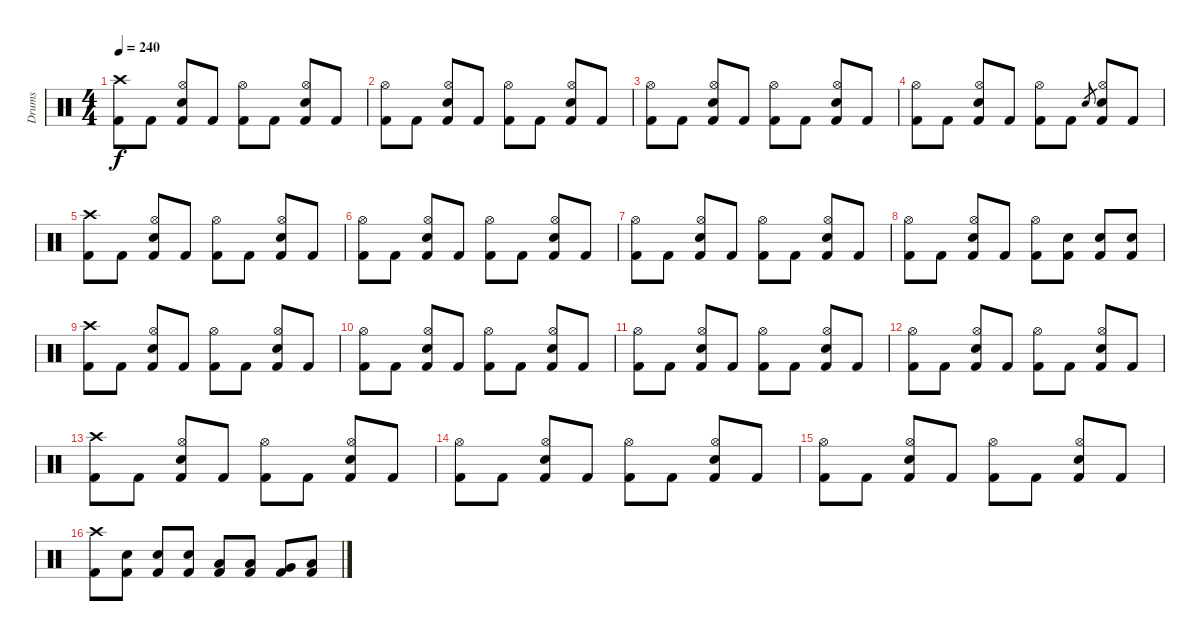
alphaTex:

\track ("Drums" "Drums") {instrument percussion}
\staff {score}
\articulation defaults
\ts (4 4)
\tempo 240
\clef neutral
\ks c
("Crash high (hit)" "Kick (hit) 2").8{dy f} "Kick (hit) 2".8 ("Hi-Hat (open)" "Snare (hit) 2" "Kick (hit) 2").8 "Kick (hit) 2".8 ("Hi-Hat (open)" "Kick (hit) 2").8 "Kick (hit) 2".8 ("Hi-Hat (open)" "Snare (hit) 2" "Kick (hit) 2").8 "Kick (hit) 2".8 |
("Hi-Hat (open)" "Kick (hit) 2").8 "Kick (hit) 2".8 ("Hi-Hat (open)" "Snare (hit) 2" "Kick (hit) 2").8 "Kick (hit) 2".8 ("Hi-Hat (open)" "Kick (hit) 2").8 "Kick (hit) 2".8 ("Hi-Hat (open)" "Snare (hit) 2" "Kick (hit) 2").8 "Kick (hit) 2".8 |
("Hi-Hat (open)" "Kick (hit) 2").8 "Kick (hit) 2".8 ("Hi-Hat (open)" "Snare (hit) 2" "Kick (hit) 2").8 "Kick (hit) 2".8 ("Hi-Hat (open)" "Kick (hit) 2").8 "Kick (hit) 2".8 ("Hi-Hat (open)" "Snare (hit) 2" "Kick (hit) 2").8 "Kick (hit) 2".8 |
("Hi-Hat (open)" "Kick (hit) 2").8 "Kick (hit) 2".8 ("Hi-Hat (open)" "Snare (hit) 2" "Kick (hit) 2").8 "Kick (hit) 2".8 ("Hi-Hat (open)" "Kick (hit) 2").8 "Kick (hit) 2".8 "Snare (hit) 2".8{gr} ("Hi-Hat (open)" "Snare (hit) 2" "Kick (hit) 2").8 "Kick (hit) 2".8 |
("Crash high (hit)" "Kick (hit) 2").8 "Kick (hit) 2".8 ("Hi-Hat (open)" "Snare (hit) 2" "Kick (hit) 2").8 "Kick (hit) 2".8 ("Hi-Hat (open)" "Kick (hit) 2").8 "Kick (hit) 2".8 ("Hi-Hat (open)" "Snare (hit) 2" "Kick (hit) 2").8 "Kick (hit) 2".8 |
("Hi-Hat (open)" "Kick (hit) 2").8 "Kick (hit) 2".8 ("Hi-Hat (open)" "Snare (hit) 2" "Kick (hit) 2").8 "Kick (hit) 2".8 ("Hi-Hat (open)" "Kick (hit) 2").8 "Kick (hit) 2".8 ("Hi-Hat (open)" "Snare (hit) 2" "Kick (hit) 2").8 "Kick (hit) 2".8 |
("Hi-Hat (open)" "Kick (hit) 2").8 "Kick (hit) 2".8 ("Hi-Hat (open)" "Snare (hit) 2" "Kick (hit) 2").8 "Kick (hit) 2".8 ("Hi-Hat (open)" "Kick (hit) 2").8 "Kick (hit) 2".8 ("Hi-Hat (open)" "Snare (hit) 2" "Kick (hit) 2").8 "Kick (hit) 2".8 |
("Hi-Hat (open)" "Kick (hit) 2").8 "Kick (hit) 2".8 ("Hi-Hat (open)" "Snare (hit) 2" "Kick (hit) 2").8 "Kick (hit) 2".8 ("Hi-Hat (open)" "Kick (hit) 2").8 ("Snare (hit) 2" "Kick (hit) 2").8 ("Snare (hit) 2" "Kick (hit) 2").8 ("Snare (hit) 2" "Kick (hit) 2").8 |
("Crash high (hit)" "Kick (hit) 2").8 "Kick (hit) 2".8 ("Hi-Hat (open)" "Snare (hit) 2" "Kick (hit) 2").8 "Kick (hit) 2".8 ("Hi-Hat (open)" "Kick (hit) 2").8 "Kick (hit) 2".8 ("Hi-Hat (open)" "Snare (hit) 2" "Kick (hit) 2").8 "Kick (hit) 2".8 |
("Hi-Hat (open)" "Kick (hit) 2").8 "Kick (hit) 2".8 ("Hi-Hat (open)" "Snare (hit) 2" "Kick (hit) 2").8 "Kick (hit) 2".8 ("Hi-Hat (open)" "Kick (hit) 2").8 "Kick (hit) 2".8 ("Hi-Hat (open)" "Snare (hit) 2" "Kick (hit) 2").8 "Kick (hit) 2".8 |
("Hi-Hat (open)" "Kick (hit) 2").8 "Kick (hit) 2".8 ("Hi-Hat (open)" "Snare (hit) 2" "Kick (hit) 2").8 "Kick (hit) 2".8 ("Hi-Hat (open)" "Kick (hit) 2").8 "Kick (hit) 2".8 ("Hi-Hat (open)" "Snare (hit) 2" "Kick (hit) 2").8 "Kick (hit) 2".8 |
("Hi-Hat (open)" "Kick (hit) 2").8 "Kick (hit) 2".8 ("Hi-Hat (open)" "Snare (hit) 2" "Kick (hit) 2").8 "Kick (hit) 2".8 ("Hi-Hat (open)" "Kick (hit) 2").8 "Kick (hit) 2".8 ("Hi-Hat (open)" "Snare (hit) 2" "Kick (hit) 2").8 "Kick (hit) 2".8 |
("Crash high (hit)" "Kick (hit) 2").8 "Kick (hit) 2".8 ("Hi-Hat (open)" "Snare (hit) 2" "Kick (hit) 2").8 "Kick (hit) 2".8 ("Hi-Hat (open)" "Kick (hit) 2").8 "Kick (hit) 2".8 ("Hi-Hat (open)" "Snare (hit) 2" "Kick (hit) 2").8 "Kick (hit) 2".8 |
("Hi-Hat (open)" "Kick (hit) 2").8 "Kick (hit) 2".8 ("Hi-Hat (open)" "Snare (hit) 2" "Kick (hit) 2").8 "Kick (hit) 2".8 ("Hi-Hat (open)" "Kick (hit) 2").8 "Kick (hit) 2".8 ("Hi-Hat (open)" "Snare (hit) 2" "Kick (hit) 2").8 "Kick (hit) 2".8 |
("Hi-Hat (open)" "Kick (hit) 2").8 "Kick (hit) 2".8 ("Hi-Hat (open)" "Snare (hit) 2" "Kick (hit) 2").8 "Kick (hit) 2".8 ("Hi-Hat (open)" "Kick (hit) 2").8 "Kick (hit) 2".8 ("Hi-Hat (open)" "Snare (hit) 2" "Kick (hit) 2").8 "Kick (hit) 2".8 |
("Crash high (hit)" "Kick (hit) 2").8 ("Snare (hit) 2" "Kick (hit) 2").8 ("Snare (hit) 2" "Kick (hit) 2").8 ("Snare (hit) 2" "Kick (hit) 2").8 ("Low Tom (hit)" "Kick (hit) 2").8 ("Low Tom (hit)" "Kick (hit) 2").8 ("Very Low Tom (hit)" "Kick (hit) 2").8 ("Low Floor Tom (hit)" "Kick (hit) 2").8
